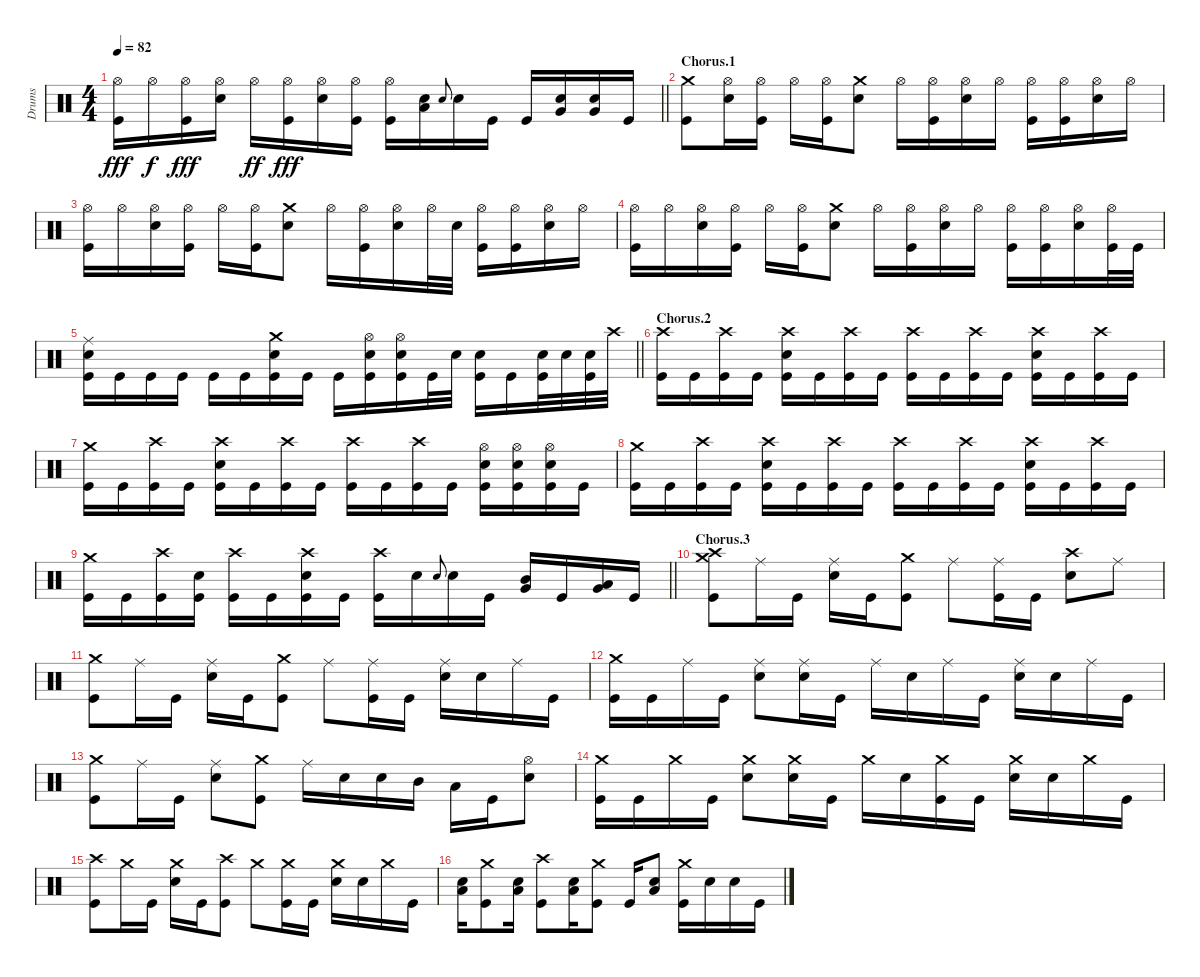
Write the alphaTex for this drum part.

\track ("Drums" "Drums") {instrument percussion}
\staff {score}
\articulation defaults
\ts (4 4)
\tempo 82
\clef neutral
\barLineRight lightlight
\ks c
("Hi-Hat (open)" "Kick (hit)").16{dy fff} "Hi-Hat (open)".16{dy f} ("Hi-Hat (open)" "Kick (hit)").16{dy fff} ("Hi-Hat (open)" "Snare (hit) 2").16 "Hi-Hat (open)".16{dy ff} ("Hi-Hat (open)" "Kick (hit)").16{dy fff} ("Hi-Hat (open)" "Snare (hit) 2").16 ("Hi-Hat (open)" "Kick (hit)").16 ("Hi-Hat (open)" "Kick (hit)").16 ("Low Floor Tom (hit)" "Snare (hit) 2").16 "Snare (hit) 2".8{gr onbeat} "Snare (hit) 2".16 "Kick (hit)".16 "Kick (hit)".16 ("Very Low Tom (hit)" "Snare (hit) 2").16 ("Very Low Tom (hit)" "Snare (hit) 2").16 "Kick (hit)".16 |
\section ("" "Chorus.1")
("Crash medium (hit)" "Kick (hit)").8 ("Hi-Hat (open)" "Snare (hit) 2").16 ("Hi-Hat (open)" "Kick (hit)").16 "Hi-Hat (open)".16 ("Hi-Hat (open)" "Kick (hit)").16 ("Crash medium (hit)" "Snare (hit) 2").8 "Hi-Hat (open)".16 ("Hi-Hat (open)" "Kick (hit)").16 ("Hi-Hat (open)" "Snare (hit) 2").16 "Hi-Hat (open)".16 ("Hi-Hat (open)" "Kick (hit)").16 ("Hi-Hat (open)" "Kick (hit)").16 ("Hi-Hat (open)" "Snare (hit) 2").16 "Hi-Hat (open)".16 |
("Hi-Hat (open)" "Kick (hit)").16 "Hi-Hat (open)".16 ("Hi-Hat (open)" "Snare (hit) 2").16 ("Hi-Hat (open)" "Kick (hit)").16 "Hi-Hat (open)".16 ("Hi-Hat (open)" "Kick (hit)").16 ("Crash medium (hit)" "Snare (hit) 2").8 "Hi-Hat (open)".16 ("Hi-Hat (open)" "Kick (hit)").16 ("Hi-Hat (open)" "Snare (hit) 2").16 "Hi-Hat (open)".32 "Snare (hit) 2".32 ("Hi-Hat (open)" "Kick (hit)").16 ("Hi-Hat (open)" "Kick (hit)").16 ("Hi-Hat (open)" "Snare (hit) 2").16 "Hi-Hat (open)".16 |
("Hi-Hat (open)" "Kick (hit)").16 "Hi-Hat (open)".16 ("Hi-Hat (open)" "Snare (hit) 2").16 ("Hi-Hat (open)" "Kick (hit)").16 "Hi-Hat (open)".16 ("Hi-Hat (open)" "Kick (hit)").16 ("Crash medium (hit)" "Snare (hit) 2").8 "Hi-Hat (open)".16 ("Hi-Hat (open)" "Kick (hit)").16 ("Hi-Hat (open)" "Snare (hit) 2").16 "Hi-Hat (open)".16 ("Hi-Hat (open)" "Kick (hit)").16 ("Hi-Hat (open)" "Kick (hit)").16 ("Hi-Hat (open)" "Snare (hit) 2").16 ("Hi-Hat (open)" "Kick (hit)").32 "Kick (hit)".32 |
\barLineRight lightlight
("Ride (middle)" "Snare (hit) 2" "Kick (hit)").16 "Kick (hit)".16 "Kick (hit)".16 "Kick (hit)".16 "Kick (hit)".16 "Kick (hit)".16 ("Crash medium (hit)" "Snare (hit) 2" "Kick (hit)").16 "Kick (hit)".16 "Kick (hit)".16 ("Hi-Hat (open)" "Snare (hit) 2" "Kick (hit)").16 ("Hi-Hat (open)" "Snare (hit) 2" "Kick (hit)").16 "Kick (hit)".32 "Snare (hit) 2".32 ("Snare (hit) 2" "Kick (hit)").16 "Kick (hit)".16 ("Snare (hit) 2" "Kick (hit)").32 "Snare (hit) 2".32 ("Snare (hit) 2" "Kick (hit)").32 "Crash high (hit)".32 |
\section ("" "Chorus.2")
("Crash high (hit)" "Kick (hit)").16 "Kick (hit)".16 ("Crash high (hit)" "Kick (hit)").16 "Kick (hit)".16 ("Crash high (hit)" "Snare (hit) 2" "Kick (hit)").16 "Kick (hit)".16 ("Crash high (hit)" "Kick (hit)").16 "Kick (hit)".16 ("Crash high (hit)" "Kick (hit)").16 "Kick (hit)".16 ("Crash high (hit)" "Kick (hit)").16 "Kick (hit)".16 ("Crash high (hit)" "Snare (hit) 2" "Kick (hit)").16 "Kick (hit)".16 ("Crash high (hit)" "Kick (hit)").16 "Kick (hit)".16 |
("Crash medium (hit)" "Kick (hit)").16 "Kick (hit)".16 ("Crash high (hit)" "Kick (hit)").16 "Kick (hit)".16 ("Crash high (hit)" "Snare (hit) 2" "Kick (hit)").16 "Kick (hit)".16 ("Crash high (hit)" "Kick (hit)").16 "Kick (hit)".16 ("Crash high (hit)" "Kick (hit)").16 "Kick (hit)".16 ("Crash high (hit)" "Kick (hit)").16 "Kick (hit)".16 ("Hi-Hat (open)" "Snare (hit) 2" "Kick (hit)").16 ("Hi-Hat (open)" "Snare (hit) 2" "Kick (hit)").16 ("Hi-Hat (open)" "Snare (hit) 2" "Kick (hit)").16 "Kick (hit)".16 |
("Crash medium (hit)" "Kick (hit)").16 "Kick (hit)".16 ("Crash high (hit)" "Kick (hit)").16 "Kick (hit)".16 ("Crash high (hit)" "Snare (hit) 2" "Kick (hit)").16 "Kick (hit)".16 ("Crash high (hit)" "Kick (hit)").16 "Kick (hit)".16 ("Crash high (hit)" "Kick (hit)").16 "Kick (hit)".16 ("Crash high (hit)" "Kick (hit)").16 "Kick (hit)".16 ("Crash high (hit)" "Snare (hit) 2" "Kick (hit)").16 "Kick (hit)".16 ("Crash high (hit)" "Kick (hit)").16 "Kick (hit)".16 |
\barLineRight lightlight
("Crash medium (hit)" "Kick (hit)").16 "Kick (hit)".16 ("Crash high (hit)" "Kick (hit)").16 ("Snare (hit) 2" "Kick (hit)").16 ("Crash high (hit)" "Kick (hit)").16 "Kick (hit)".16 ("Crash high (hit)" "Snare (hit) 2" "Kick (hit)").16 "Kick (hit)".16 ("Crash high (hit)" "Kick (hit)").16 "Snare (hit) 2".16 "Snare (hit) 2".8{gr onbeat} "Snare (hit) 2".16 "Kick (hit)".16 ("Mid Tom (hit)" "Very Low Tom (hit)").16 "Kick (hit)".16 ("Low Tom (hit)" "Very Low Tom (hit)").16 "Kick (hit)".16 |
\section ("" "Chorus.3")
("Crash medium (hit)" "Crash high (hit)" "Kick (hit)").8 "Ride (middle)".16 "Kick (hit)".16 ("Ride (middle)" "Snare (hit) 2").16 "Kick (hit)".16 ("Crash medium (hit)" "Kick (hit)").8 "Ride (middle)".8 ("Ride (middle)" "Kick (hit)").16 "Kick (hit)".16 ("Crash high (hit)" "Snare (hit) 2").8 "Ride (middle)".8 |
("Crash medium (hit)" "Kick (hit)").8 "Ride (middle)".16 "Kick (hit)".16 ("Ride (middle)" "Snare (hit) 2").16 "Kick (hit)".16 ("Crash medium (hit)" "Kick (hit)").8 "Ride (middle)".8 ("Ride (middle)" "Kick (hit)").16 "Kick (hit)".16 ("Ride (middle)" "Snare (hit) 2").16 "Snare (hit) 2".16 "Ride (middle)".16 "Kick (hit)".16 |
("Crash medium (hit)" "Kick (hit)").16 "Kick (hit)".16 "Ride (middle)".16 "Kick (hit)".16 ("Ride (middle)" "Snare (hit) 2").8 ("Ride (middle)" "Snare (hit) 2").16 "Kick (hit)".16 "Ride (middle)".16 "Snare (hit) 2".16 "Ride (middle)".16 "Kick (hit)".16 ("Ride (middle)" "Snare (hit) 2").16 "Snare (hit) 2".16 "Ride (middle)".16 "Kick (hit)".16 |
("Crash medium (hit)" "Kick (hit)").8 "Ride (middle)".16 "Kick (hit)".16 ("Ride (middle)" "Snare (hit) 2").8 ("Crash medium (hit)" "Kick (hit)").8 "Ride (middle)".16 "Snare (hit) 2".16 "Snare (hit) 2".16 "Mid Tom (hit)".16 "Low Tom (hit)".16 "Kick (hit)".16 ("Hi-Hat (open)" "Snare (hit) 2").8 |
("Crash medium (hit)" "Kick (hit)").16 "Kick (hit)".16 "Crash medium (hit)".16 "Kick (hit)".16 ("Crash medium (hit)" "Snare (hit) 2").8 ("Crash medium (hit)" "Snare (hit) 2").16 "Kick (hit)".16 "Crash medium (hit)".16 "Snare (hit) 2".16 ("Crash medium (hit)" "Kick (hit)").16 "Kick (hit)".16 ("Crash medium (hit)" "Snare (hit) 2").16 "Snare (hit) 2".16 "Crash medium (hit)".16 "Kick (hit)".16 |
("Crash high (hit)" "Kick (hit)").8 "Crash medium (hit)".16 "Kick (hit)".16 ("Crash medium (hit)" "Snare (hit) 2").16 "Kick (hit)".16 ("Crash high (hit)" "Kick (hit)").8 "Crash medium (hit)".8 ("Crash medium (hit)" "Kick (hit)").16 "Kick (hit)".16 ("Crash medium (hit)" "Snare (hit) 2").16 "Snare (hit) 2".16 "Crash medium (hit)".16 "Kick (hit)".16 |
("Low Floor Tom (hit)" "Snare (hit) 2").16 ("Crash medium (hit)" "Kick (hit)").8 ("Low Floor Tom (hit)" "Snare (hit) 2").16 ("Crash high (hit)" "Kick (hit)").8 ("Low Floor Tom (hit)" "Snare (hit) 2").16 ("Crash medium (hit)" "Kick (hit)").8 "Kick (hit)".16 ("Low Floor Tom (hit)" "Snare (hit) 2").8 ("Crash medium (hit)" "Kick (hit)").16 "Snare (hit) 2".16 "Snare (hit) 2".16 "Kick (hit)".16
